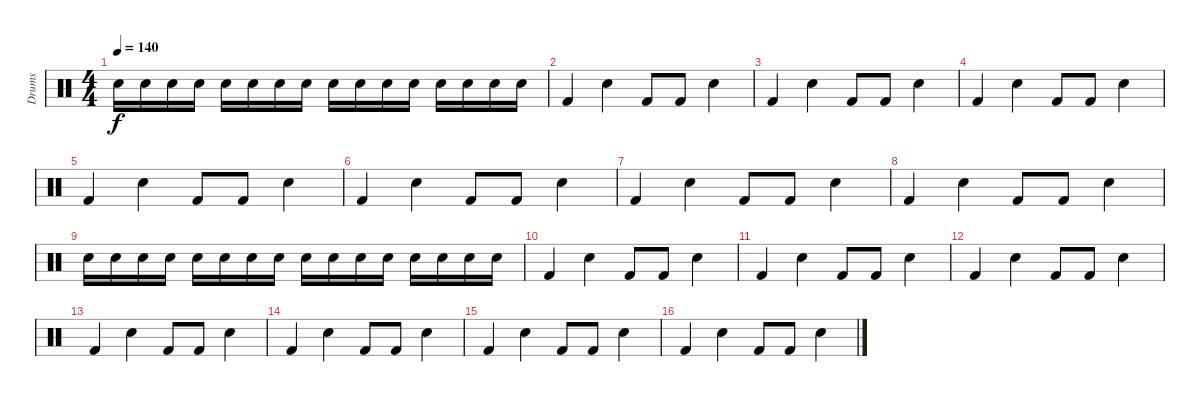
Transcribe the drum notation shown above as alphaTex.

\track ("Drums" "Drums") {instrument percussion}
\staff {score}
\articulation defaults
\ts (4 4)
\tempo 140
\clef neutral
\ks c "Electric Snare (hit)".16{dy f} "Electric Snare (hit)".16 "Electric Snare (hit)".16 "Electric Snare (hit)".16 "Electric Snare (hit)".16 "Electric Snare (hit)".16 "Electric Snare (hit)".16 "Electric Snare (hit)".16 "Electric Snare (hit)".16 "Electric Snare (hit)".16 "Electric Snare (hit)".16 "Electric Snare (hit)".16 "Electric Snare (hit)".16 "Electric Snare (hit)".16 "Electric Snare (hit)".16 "Electric Snare (hit)".16
|
"Kick (hit) 2".4 "Electric Snare (hit)".4 "Kick (hit) 2".8 "Kick (hit) 2".8 "Electric Snare (hit)".4 |
"Kick (hit) 2".4 "Electric Snare (hit)".4 "Kick (hit) 2".8 "Kick (hit) 2".8 "Electric Snare (hit)".4 |
"Kick (hit) 2".4 "Electric Snare (hit)".4 "Kick (hit) 2".8 "Kick (hit) 2".8 "Electric Snare (hit)".4 |
"Kick (hit) 2".4 "Electric Snare (hit)".4 "Kick (hit) 2".8 "Kick (hit) 2".8 "Electric Snare (hit)".4 |
"Kick (hit) 2".4 "Electric Snare (hit)".4 "Kick (hit) 2".8 "Kick (hit) 2".8 "Electric Snare (hit)".4 |
"Kick (hit) 2".4 "Electric Snare (hit)".4 "Kick (hit) 2".8 "Kick (hit) 2".8 "Electric Snare (hit)".4 |
"Kick (hit) 2".4 "Electric Snare (hit)".4 "Kick (hit) 2".8 "Kick (hit) 2".8 "Electric Snare (hit)".4 |
"Electric Snare (hit)".16 "Electric Snare (hit)".16 "Electric Snare (hit)".16 "Electric Snare (hit)".16 "Electric Snare (hit)".16 "Electric Snare (hit)".16 "Electric Snare (hit)".16 "Electric Snare (hit)".16 "Electric Snare (hit)".16 "Electric Snare (hit)".16 "Electric Snare (hit)".16 "Electric Snare (hit)".16 "Electric Snare (hit)".16 "Electric Snare (hit)".16 "Electric Snare (hit)".16 "Electric Snare (hit)".16 |
"Kick (hit) 2".4 "Electric Snare (hit)".4 "Kick (hit) 2".8 "Kick (hit) 2".8 "Electric Snare (hit)".4 |
"Kick (hit) 2".4 "Electric Snare (hit)".4 "Kick (hit) 2".8 "Kick (hit) 2".8 "Electric Snare (hit)".4 |
"Kick (hit) 2".4 "Electric Snare (hit)".4 "Kick (hit) 2".8 "Kick (hit) 2".8 "Electric Snare (hit)".4 |
"Kick (hit) 2".4 "Electric Snare (hit)".4 "Kick (hit) 2".8 "Kick (hit) 2".8 "Electric Snare (hit)".4 |
"Kick (hit) 2".4 "Electric Snare (hit)".4 "Kick (hit) 2".8 "Kick (hit) 2".8 "Electric Snare (hit)".4 |
"Kick (hit) 2".4 "Electric Snare (hit)".4 "Kick (hit) 2".8 "Kick (hit) 2".8 "Electric Snare (hit)".4 |
"Kick (hit) 2".4 "Electric Snare (hit)".4 "Kick (hit) 2".8 "Kick (hit) 2".8 "Electric Snare (hit)".4
